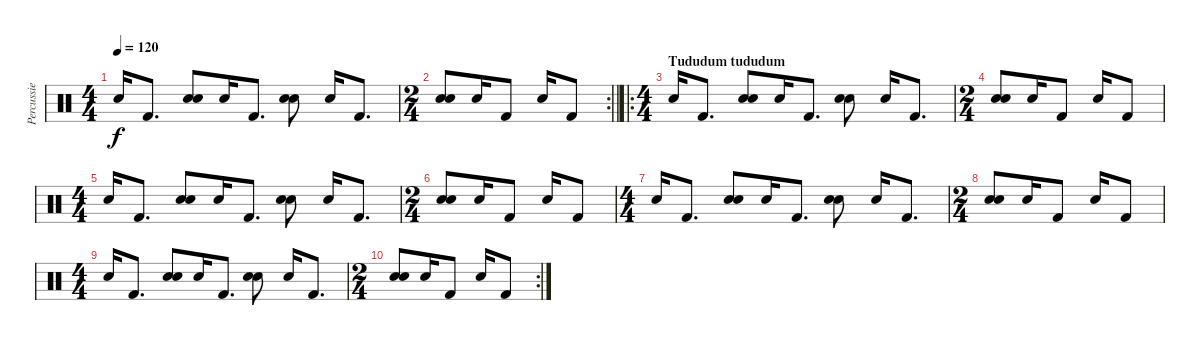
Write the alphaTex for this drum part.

\track ("Percussie" "Percussie") {instrument percussion}
\staff {score}
\articulation defaults
\ts (4 4)
\tempo 120
\clef neutral
\ks c "Snare (hit) 2".16{dy f} "Kick (hit) 2".8{d}
("Hand Clap (hit)" "Snare (hit) 2").8 "Snare (hit) 2".16 "Kick (hit) 2".8{d} ("Hand Clap (hit)" "Snare (hit) 2").8 "Snare (hit) 2".16 "Kick (hit) 2".8{d} |
\rc 2
\ts (2 4)
\barLineRight lightlight
("Hand Clap (hit)" "Snare (hit) 2").8 "Snare (hit) 2".16 "Kick (hit) 2".8 "Snare (hit) 2".16 "Kick (hit) 2".8 |
\ro
\ts (4 4)
\section ("" "Tududum tududum")
"Snare (hit) 2".16 "Kick (hit) 2".8{d} ("Hand Clap (hit)" "Snare (hit) 2").8 "Snare (hit) 2".16 "Kick (hit) 2".8{d} ("Hand Clap (hit)" "Snare (hit) 2").8 "Snare (hit) 2".16 "Kick (hit) 2".8{d} |
\ts (2 4)
("Hand Clap (hit)" "Snare (hit) 2").8 "Snare (hit) 2".16 "Kick (hit) 2".8 "Snare (hit) 2".16 "Kick (hit) 2".8 |
\ts (4 4)
"Snare (hit) 2".16 "Kick (hit) 2".8{d} ("Hand Clap (hit)" "Snare (hit) 2").8 "Snare (hit) 2".16 "Kick (hit) 2".8{d} ("Hand Clap (hit)" "Snare (hit) 2").8 "Snare (hit) 2".16 "Kick (hit) 2".8{d} |
\ts (2 4)
("Hand Clap (hit)" "Snare (hit) 2").8 "Snare (hit) 2".16 "Kick (hit) 2".8 "Snare (hit) 2".16 "Kick (hit) 2".8 |
\ts (4 4)
"Snare (hit) 2".16 "Kick (hit) 2".8{d} ("Hand Clap (hit)" "Snare (hit) 2").8 "Snare (hit) 2".16 "Kick (hit) 2".8{d} ("Hand Clap (hit)" "Snare (hit) 2").8 "Snare (hit) 2".16 "Kick (hit) 2".8{d} |
\ts (2 4)
("Hand Clap (hit)" "Snare (hit) 2").8 "Snare (hit) 2".16 "Kick (hit) 2".8 "Snare (hit) 2".16 "Kick (hit) 2".8 |
\ts (4 4)
"Snare (hit) 2".16 "Kick (hit) 2".8{d} ("Hand Clap (hit)" "Snare (hit) 2").8 "Snare (hit) 2".16 "Kick (hit) 2".8{d} ("Hand Clap (hit)" "Snare (hit) 2").8 "Snare (hit) 2".16 "Kick (hit) 2".8{d} |
\rc 2
\ts (2 4)
("Hand Clap (hit)" "Snare (hit) 2").8 "Snare (hit) 2".16 "Kick (hit) 2".8 "Snare (hit) 2".16 "Kick (hit) 2".8
